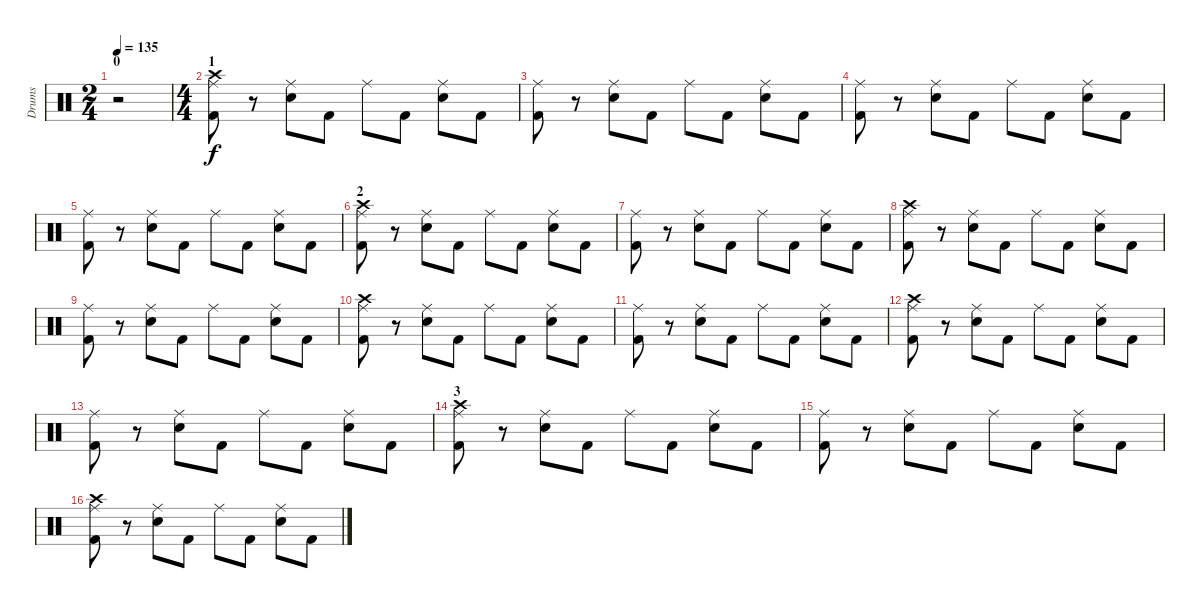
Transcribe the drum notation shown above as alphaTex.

\track ("Drums" "Drums") {instrument percussion}
\staff {score}
\articulation defaults
\ts (2 4)
\section ("" "0")
\tempo 135
\clef neutral
\ks c
r.2{dy f} |
\ts (4 4)
\section ("" "1")
("Ride (middle)" "Kick (hit) 2" "Crash high (hit)").8 r.8 ("Ride (middle)" "Snare (hit) 2").8 "Kick (hit) 2".8 "Ride (middle)".8 "Kick (hit) 2".8 ("Ride (middle)" "Snare (hit) 2").8 "Kick (hit) 2".8 |
("Ride (middle)" "Kick (hit) 2").8 r.8 ("Ride (middle)" "Snare (hit) 2").8 "Kick (hit) 2".8 "Ride (middle)".8 "Kick (hit) 2".8 ("Ride (middle)" "Snare (hit) 2").8 "Kick (hit) 2".8 |
("Ride (middle)" "Kick (hit) 2").8 r.8 ("Ride (middle)" "Snare (hit) 2").8 "Kick (hit) 2".8 "Ride (middle)".8 "Kick (hit) 2".8 ("Ride (middle)" "Snare (hit) 2").8 "Kick (hit) 2".8 |
("Ride (middle)" "Kick (hit) 2").8 r.8 ("Ride (middle)" "Snare (hit) 2").8 "Kick (hit) 2".8 "Ride (middle)".8 "Kick (hit) 2".8 ("Ride (middle)" "Snare (hit) 2").8 "Kick (hit) 2".8 |
\section ("" "2")
("Ride (middle)" "Kick (hit) 2" "Crash high (hit)").8 r.8 ("Ride (middle)" "Snare (hit) 2").8 "Kick (hit) 2".8 "Ride (middle)".8 "Kick (hit) 2".8 ("Ride (middle)" "Snare (hit) 2").8 "Kick (hit) 2".8 |
("Ride (middle)" "Kick (hit) 2").8 r.8 ("Ride (middle)" "Snare (hit) 2").8 "Kick (hit) 2".8 "Ride (middle)".8 "Kick (hit) 2".8 ("Ride (middle)" "Snare (hit) 2").8 "Kick (hit) 2".8 |
("Ride (middle)" "Kick (hit) 2" "Crash high (hit)").8 r.8 ("Ride (middle)" "Snare (hit) 2").8 "Kick (hit) 2".8 "Ride (middle)".8 "Kick (hit) 2".8 ("Ride (middle)" "Snare (hit) 2").8 "Kick (hit) 2".8 |
("Ride (middle)" "Kick (hit) 2").8 r.8 ("Ride (middle)" "Snare (hit) 2").8 "Kick (hit) 2".8 "Ride (middle)".8 "Kick (hit) 2".8 ("Ride (middle)" "Snare (hit) 2").8 "Kick (hit) 2".8 |
("Ride (middle)" "Kick (hit) 2" "Crash high (hit)").8 r.8 ("Ride (middle)" "Snare (hit) 2").8 "Kick (hit) 2".8 "Ride (middle)".8 "Kick (hit) 2".8 ("Ride (middle)" "Snare (hit) 2").8 "Kick (hit) 2".8 |
("Ride (middle)" "Kick (hit) 2").8 r.8 ("Ride (middle)" "Snare (hit) 2").8 "Kick (hit) 2".8 "Ride (middle)".8 "Kick (hit) 2".8 ("Ride (middle)" "Snare (hit) 2").8 "Kick (hit) 2".8 |
("Ride (middle)" "Kick (hit) 2" "Crash high (hit)").8 r.8 ("Ride (middle)" "Snare (hit) 2").8 "Kick (hit) 2".8 "Ride (middle)".8 "Kick (hit) 2".8 ("Ride (middle)" "Snare (hit) 2").8 "Kick (hit) 2".8 |
("Ride (middle)" "Kick (hit) 2").8 r.8 ("Ride (middle)" "Snare (hit) 2").8 "Kick (hit) 2".8 "Ride (middle)".8 "Kick (hit) 2".8 ("Ride (middle)" "Snare (hit) 2").8 "Kick (hit) 2".8 |
\section ("" "3")
("Ride (middle)" "Kick (hit) 2" "Crash high (hit)").8 r.8 ("Ride (middle)" "Snare (hit) 2").8 "Kick (hit) 2".8 "Ride (middle)".8 "Kick (hit) 2".8 ("Ride (middle)" "Snare (hit) 2").8 "Kick (hit) 2".8 |
("Ride (middle)" "Kick (hit) 2").8 r.8 ("Ride (middle)" "Snare (hit) 2").8 "Kick (hit) 2".8 "Ride (middle)".8 "Kick (hit) 2".8 ("Ride (middle)" "Snare (hit) 2").8 "Kick (hit) 2".8 |
("Ride (middle)" "Kick (hit) 2" "Crash high (hit)").8 r.8 ("Ride (middle)" "Snare (hit) 2").8 "Kick (hit) 2".8 "Ride (middle)".8 "Kick (hit) 2".8 ("Ride (middle)" "Snare (hit) 2").8 "Kick (hit) 2".8
